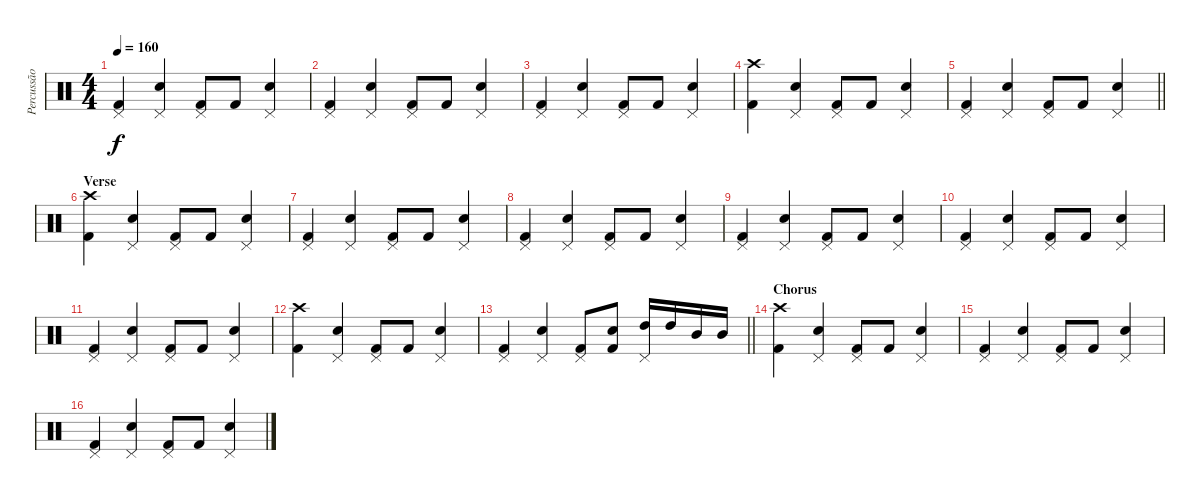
\track ("Percussão" "Percussão") {instrument percussion}
\staff {score}
\articulation defaults
\ts (4 4)
\tempo 160
\clef neutral
\ks c
("Pedal Hi-Hat (hit)" "Kick (hit) 2").4{dy f} ("Pedal Hi-Hat (hit)" "Snare (hit) 2").4 ("Pedal Hi-Hat (hit)" "Kick (hit) 2").8 "Kick (hit) 2".8 ("Pedal Hi-Hat (hit)" "Snare (hit) 2").4 |
("Pedal Hi-Hat (hit)" "Kick (hit) 2").4 ("Pedal Hi-Hat (hit)" "Snare (hit) 2").4 ("Pedal Hi-Hat (hit)" "Kick (hit) 2").8 "Kick (hit) 2".8 ("Pedal Hi-Hat (hit)" "Snare (hit) 2").4 |
("Pedal Hi-Hat (hit)" "Kick (hit) 2").4 ("Pedal Hi-Hat (hit)" "Snare (hit) 2").4 ("Pedal Hi-Hat (hit)" "Kick (hit) 2").8 "Kick (hit) 2".8 ("Pedal Hi-Hat (hit)" "Snare (hit) 2").4 |
("Crash high (hit)" "Kick (hit) 2").4 ("Pedal Hi-Hat (hit)" "Snare (hit) 2").4 ("Pedal Hi-Hat (hit)" "Kick (hit) 2").8 "Kick (hit) 2".8 ("Pedal Hi-Hat (hit)" "Snare (hit) 2").4 |
\barLineRight lightlight
("Pedal Hi-Hat (hit)" "Kick (hit) 2").4 ("Pedal Hi-Hat (hit)" "Snare (hit) 2").4 ("Pedal Hi-Hat (hit)" "Kick (hit) 2").8 "Kick (hit) 2".8 ("Pedal Hi-Hat (hit)" "Snare (hit) 2").4 |
\section ("" "Verse")
("Crash high (hit)" "Kick (hit) 2").4 ("Pedal Hi-Hat (hit)" "Snare (hit) 2").4 ("Pedal Hi-Hat (hit)" "Kick (hit) 2").8 "Kick (hit) 2".8 ("Pedal Hi-Hat (hit)" "Snare (hit) 2").4 |
("Pedal Hi-Hat (hit)" "Kick (hit) 2").4 ("Pedal Hi-Hat (hit)" "Snare (hit) 2").4 ("Pedal Hi-Hat (hit)" "Kick (hit) 2").8 "Kick (hit) 2".8 ("Pedal Hi-Hat (hit)" "Snare (hit) 2").4 |
("Pedal Hi-Hat (hit)" "Kick (hit) 2").4 ("Pedal Hi-Hat (hit)" "Snare (hit) 2").4 ("Pedal Hi-Hat (hit)" "Kick (hit) 2").8 "Kick (hit) 2".8 ("Pedal Hi-Hat (hit)" "Snare (hit) 2").4 |
("Pedal Hi-Hat (hit)" "Kick (hit) 2").4 ("Pedal Hi-Hat (hit)" "Snare (hit) 2").4 ("Pedal Hi-Hat (hit)" "Kick (hit) 2").8 "Kick (hit) 2".8 ("Pedal Hi-Hat (hit)" "Snare (hit) 2").4 |
("Pedal Hi-Hat (hit)" "Kick (hit) 2").4 ("Pedal Hi-Hat (hit)" "Snare (hit) 2").4 ("Pedal Hi-Hat (hit)" "Kick (hit) 2").8 "Kick (hit) 2".8 ("Pedal Hi-Hat (hit)" "Snare (hit) 2").4 |
("Pedal Hi-Hat (hit)" "Kick (hit) 2").4 ("Pedal Hi-Hat (hit)" "Snare (hit) 2").4 ("Pedal Hi-Hat (hit)" "Kick (hit) 2").8 "Kick (hit) 2".8 ("Pedal Hi-Hat (hit)" "Snare (hit) 2").4 |
("Crash high (hit)" "Kick (hit) 2").4 ("Pedal Hi-Hat (hit)" "Snare (hit) 2").4 ("Pedal Hi-Hat (hit)" "Kick (hit) 2").8 "Kick (hit) 2".8 ("Pedal Hi-Hat (hit)" "Snare (hit) 2").4 |
\barLineRight lightlight
("Pedal Hi-Hat (hit)" "Kick (hit) 2").4 ("Pedal Hi-Hat (hit)" "Snare (hit) 2").4 ("Pedal Hi-Hat (hit)" "Kick (hit) 2").8 ("Snare (hit) 2" "Kick (hit) 2").8 ("Pedal Hi-Hat (hit)" "High Tom (hit)").16 "High Tom (hit)".16 "Mid Tom (hit)".16 "Mid Tom (hit)".16 |
\section ("" "Chorus")
("Crash high (hit)" "Kick (hit) 2").4 ("Pedal Hi-Hat (hit)" "Snare (hit) 2").4 ("Pedal Hi-Hat (hit)" "Kick (hit) 2").8 "Kick (hit) 2".8 ("Pedal Hi-Hat (hit)" "Snare (hit) 2").4 |
("Pedal Hi-Hat (hit)" "Kick (hit) 2").4 ("Pedal Hi-Hat (hit)" "Snare (hit) 2").4 ("Pedal Hi-Hat (hit)" "Kick (hit) 2").8 "Kick (hit) 2".8 ("Pedal Hi-Hat (hit)" "Snare (hit) 2").4 |
("Pedal Hi-Hat (hit)" "Kick (hit) 2").4 ("Pedal Hi-Hat (hit)" "Snare (hit) 2").4 ("Pedal Hi-Hat (hit)" "Kick (hit) 2").8 "Kick (hit) 2".8 ("Pedal Hi-Hat (hit)" "Snare (hit) 2").4
